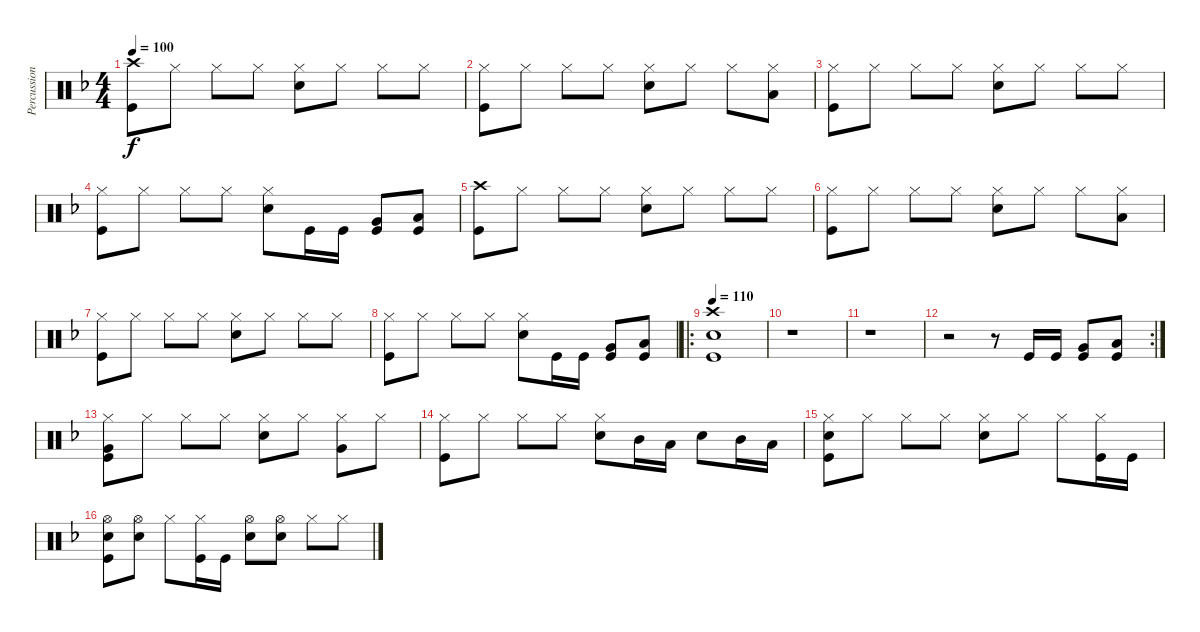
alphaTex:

\track ("Percussion" "Percussion") {instrument percussion}
\staff {score}
\articulation defaults
\ts (4 4)
\tempo 100
\clef neutral
\ks dminor
("Crash high (hit)" "Kick (hit)").8{dy f} "Hi-Hat (closed)".8 "Hi-Hat (closed)".8 "Hi-Hat (closed)".8 ("Hi-Hat (closed)" "Snare (hit) 2").8 "Hi-Hat (closed)".8 "Hi-Hat (closed)".8 "Hi-Hat (closed)".8 |
("Hi-Hat (closed)" "Kick (hit)").8 "Hi-Hat (closed)".8 "Hi-Hat (closed)".8 "Hi-Hat (closed)".8 ("Hi-Hat (closed)" "Snare (hit) 2").8 "Hi-Hat (closed)".8 "Hi-Hat (closed)".8 ("Hi-Hat (closed)" "Low Tom (hit)").8 |
("Hi-Hat (closed)" "Kick (hit)").8 "Hi-Hat (closed)".8 "Hi-Hat (closed)".8 "Hi-Hat (closed)".8 ("Hi-Hat (closed)" "Snare (hit) 2").8 "Hi-Hat (closed)".8 "Hi-Hat (closed)".8 "Hi-Hat (closed)".8 |
("Hi-Hat (closed)" "Kick (hit)").8 "Hi-Hat (closed)".8 "Hi-Hat (closed)".8 "Hi-Hat (closed)".8 ("Hi-Hat (closed)" "Snare (hit) 2").8 "Kick (hit)".16 "Kick (hit)".16 ("Very Low Tom (hit)" "Kick (hit)").8 ("Low Tom (hit)" "Kick (hit)").8 |
("Crash high (hit)" "Kick (hit)").8 "Hi-Hat (closed)".8 "Hi-Hat (closed)".8 "Hi-Hat (closed)".8 ("Hi-Hat (closed)" "Snare (hit) 2").8 "Hi-Hat (closed)".8 "Hi-Hat (closed)".8 "Hi-Hat (closed)".8 |
("Hi-Hat (closed)" "Kick (hit)").8 "Hi-Hat (closed)".8 "Hi-Hat (closed)".8 "Hi-Hat (closed)".8 ("Hi-Hat (closed)" "Snare (hit) 2").8 "Hi-Hat (closed)".8 "Hi-Hat (closed)".8 ("Hi-Hat (closed)" "Low Tom (hit)").8 |
("Hi-Hat (closed)" "Kick (hit)").8 "Hi-Hat (closed)".8 "Hi-Hat (closed)".8 "Hi-Hat (closed)".8 ("Hi-Hat (closed)" "Snare (hit) 2").8 "Hi-Hat (closed)".8 "Hi-Hat (closed)".8 "Hi-Hat (closed)".8 |
("Hi-Hat (closed)" "Kick (hit)").8 "Hi-Hat (closed)".8 "Hi-Hat (closed)".8 "Hi-Hat (closed)".8 ("Hi-Hat (closed)" "Snare (hit) 2").8 "Kick (hit)".16 "Kick (hit)".16 ("Very Low Tom (hit)" "Kick (hit)").8 ("Low Tom (hit)" "Kick (hit)").8 |
\ro
\tempo 110
("Crash high (hit)" "Snare (hit) 2" "Kick (hit)").1 |
r.1 |
r.1 |
\rc 2
r.2 r.8 "Kick (hit)".16 "Kick (hit)".16 ("Very Low Tom (hit)" "Kick (hit)").8 ("Low Tom (hit)" "Kick (hit)").8 |
("Hi-Hat (closed)" "Very Low Tom (hit)" "Kick (hit)").8 "Hi-Hat (closed)".8 "Hi-Hat (closed)".8 "Hi-Hat (closed)".8 ("Hi-Hat (closed)" "Snare (hit) 2").8 "Hi-Hat (closed)".8 ("Hi-Hat (closed)" "Very Low Tom (hit)").8 "Hi-Hat (closed)".8 |
("Hi-Hat (closed)" "Kick (hit)").8 "Hi-Hat (closed)".8 "Hi-Hat (closed)".8 "Hi-Hat (closed)".8 ("Hi-Hat (closed)" "Snare (hit) 2").8 "Mid Tom (hit)".16 "Low Tom (hit)".16 "Snare (hit) 2".8 "Mid Tom (hit)".16 "Low Tom (hit)".16 |
("Hi-Hat (closed)" "Snare (hit) 2" "Kick (hit)").8 "Hi-Hat (closed)".8 "Hi-Hat (closed)".8 "Hi-Hat (closed)".8 ("Hi-Hat (closed)" "Snare (hit) 2").8 "Hi-Hat (closed)".8 "Hi-Hat (closed)".8 ("Hi-Hat (closed)" "Kick (hit)").16 "Kick (hit)".16 |
("Hi-Hat (open)" "Snare (hit) 2" "Kick (hit)").8 ("Hi-Hat (open)" "Snare (hit) 2").8 "Hi-Hat (closed)".8 ("Hi-Hat (closed)" "Kick (hit)").16 "Kick (hit)".16 ("Hi-Hat (open)" "Snare (hit) 2").8 ("Hi-Hat (open)" "Snare (hit) 2").8 "Hi-Hat (closed)".8 "Hi-Hat (closed)".8
